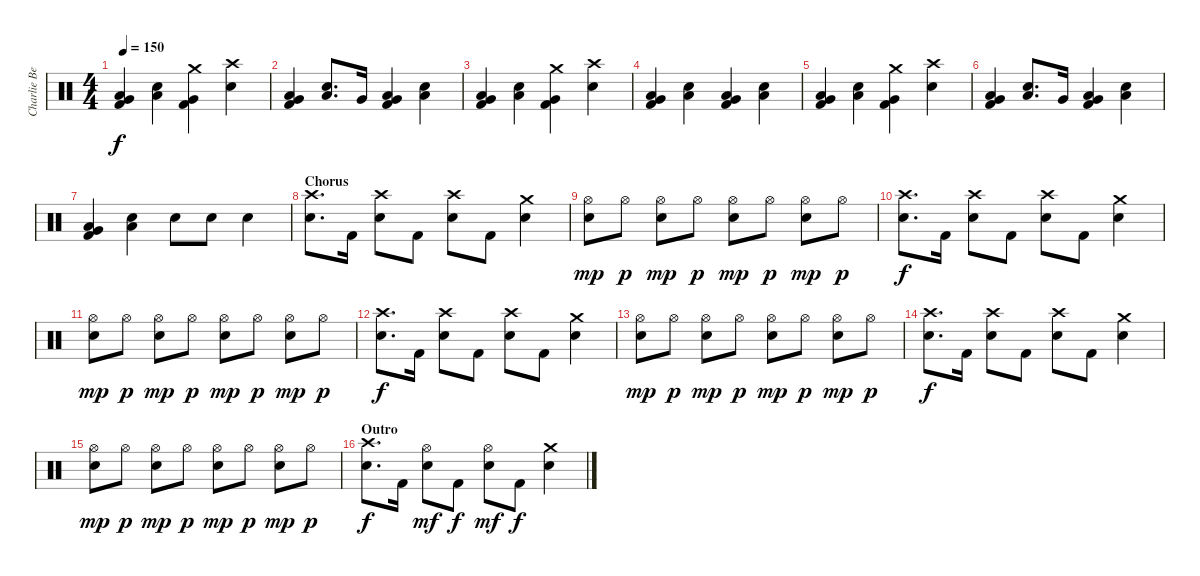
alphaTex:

\track ("Charlie Benante" "Charlie Be") {instrument percussion}
\staff {score}
\articulation defaults
\ts (4 4)
\tempo 150
\clef neutral
\ks c
("Kick (hit) 2" "Low Tom (hit)" "Very Low Tom (hit)").4{dy f} ("Snare (hit) 2" "Low Tom (hit)").4 ("Kick (hit) 2" "Crash medium (hit)" "Very Low Tom (hit)").4 ("Crash high (hit)" "Snare (hit) 2").4 |
("Kick (hit) 2" "Low Tom (hit)" "Very Low Tom (hit)").4 ("Snare (hit) 2" "Low Tom (hit)").8{d} "Very Low Tom (hit)".16 ("Kick (hit) 2" "Low Tom (hit)" "Very Low Tom (hit)").4 ("Snare (hit) 2" "Low Tom (hit)").4 |
("Kick (hit) 2" "Low Tom (hit)" "Very Low Tom (hit)").4 ("Snare (hit) 2" "Low Tom (hit)").4 ("Kick (hit) 2" "Crash medium (hit)" "Very Low Tom (hit)").4 ("Crash high (hit)" "Snare (hit) 2").4 |
("Kick (hit) 2" "Low Tom (hit)" "Very Low Tom (hit)").4 ("Snare (hit) 2" "Low Tom (hit)").4 ("Kick (hit) 2" "Low Tom (hit)" "Very Low Tom (hit)").4 ("Snare (hit) 2" "Low Tom (hit)").4 |
("Kick (hit) 2" "Low Tom (hit)" "Very Low Tom (hit)").4 ("Snare (hit) 2" "Low Tom (hit)").4 ("Kick (hit) 2" "Crash medium (hit)" "Very Low Tom (hit)").4 ("Crash high (hit)" "Snare (hit) 2").4 |
("Kick (hit) 2" "Low Tom (hit)" "Very Low Tom (hit)").4 ("Snare (hit) 2" "Low Tom (hit)").8{d} "Very Low Tom (hit)".16 ("Kick (hit) 2" "Low Tom (hit)" "Very Low Tom (hit)").4 ("Snare (hit) 2" "Low Tom (hit)").4 |
("Kick (hit) 2" "Low Tom (hit)" "Very Low Tom (hit)").4 ("Snare (hit) 2" "Low Tom (hit)").4 "Snare (hit) 2".8 "Snare (hit) 2".8 "Snare (hit) 2".4 |
\section ("" "Chorus")
("Crash high (hit)" "Snare (hit) 2").8{d} "Kick (hit) 2".16 ("Crash high (hit)" "Snare (hit) 2").8 "Kick (hit) 2".8 ("Crash high (hit)" "Snare (hit) 2").8 "Kick (hit) 2".8 ("Crash medium (hit)" "Snare (hit) 2").4 |
("Hi-Hat (open)" "Snare (hit) 2").8{dy mp} "Hi-Hat (open)".8{dy p} ("Hi-Hat (open)" "Snare (hit) 2").8{dy mp} "Hi-Hat (open)".8{dy p} ("Hi-Hat (open)" "Snare (hit) 2").8{dy mp} "Hi-Hat (open)".8{dy p} ("Hi-Hat (open)" "Snare (hit) 2").8{dy mp} "Hi-Hat (open)".8{dy p} |
("Crash high (hit)" "Snare (hit) 2").8{d dy f} "Kick (hit) 2".16 ("Crash high (hit)" "Snare (hit) 2").8 "Kick (hit) 2".8 ("Crash high (hit)" "Snare (hit) 2").8 "Kick (hit) 2".8 ("Crash medium (hit)" "Snare (hit) 2").4 |
("Hi-Hat (open)" "Snare (hit) 2").8{dy mp} "Hi-Hat (open)".8{dy p} ("Hi-Hat (open)" "Snare (hit) 2").8{dy mp} "Hi-Hat (open)".8{dy p} ("Hi-Hat (open)" "Snare (hit) 2").8{dy mp} "Hi-Hat (open)".8{dy p} ("Hi-Hat (open)" "Snare (hit) 2").8{dy mp} "Hi-Hat (open)".8{dy p} |
("Crash high (hit)" "Snare (hit) 2").8{d dy f} "Kick (hit) 2".16 ("Crash high (hit)" "Snare (hit) 2").8 "Kick (hit) 2".8 ("Crash high (hit)" "Snare (hit) 2").8 "Kick (hit) 2".8 ("Crash medium (hit)" "Snare (hit) 2").4 |
("Hi-Hat (open)" "Snare (hit) 2").8{dy mp} "Hi-Hat (open)".8{dy p} ("Hi-Hat (open)" "Snare (hit) 2").8{dy mp} "Hi-Hat (open)".8{dy p} ("Hi-Hat (open)" "Snare (hit) 2").8{dy mp} "Hi-Hat (open)".8{dy p} ("Hi-Hat (open)" "Snare (hit) 2").8{dy mp} "Hi-Hat (open)".8{dy p} |
("Crash high (hit)" "Snare (hit) 2").8{d dy f} "Kick (hit) 2".16 ("Crash high (hit)" "Snare (hit) 2").8 "Kick (hit) 2".8 ("Crash high (hit)" "Snare (hit) 2").8 "Kick (hit) 2".8 ("Crash medium (hit)" "Snare (hit) 2").4 |
("Hi-Hat (open)" "Snare (hit) 2").8{dy mp} "Hi-Hat (open)".8{dy p} ("Hi-Hat (open)" "Snare (hit) 2").8{dy mp} "Hi-Hat (open)".8{dy p} ("Hi-Hat (open)" "Snare (hit) 2").8{dy mp} "Hi-Hat (open)".8{dy p} ("Hi-Hat (open)" "Snare (hit) 2").8{dy mp} "Hi-Hat (open)".8{dy p} |
\section ("" "Outro")
("Crash high (hit)" "Snare (hit) 2").8{d dy f} "Kick (hit) 2".16 ("Hi-Hat (open)" "Snare (hit) 2").8{dy mf} "Kick (hit) 2".8{dy f} ("Hi-Hat (open)" "Snare (hit) 2").8{dy mf} "Kick (hit) 2".8{dy f} ("Crash medium (hit)" "Snare (hit) 2").4
